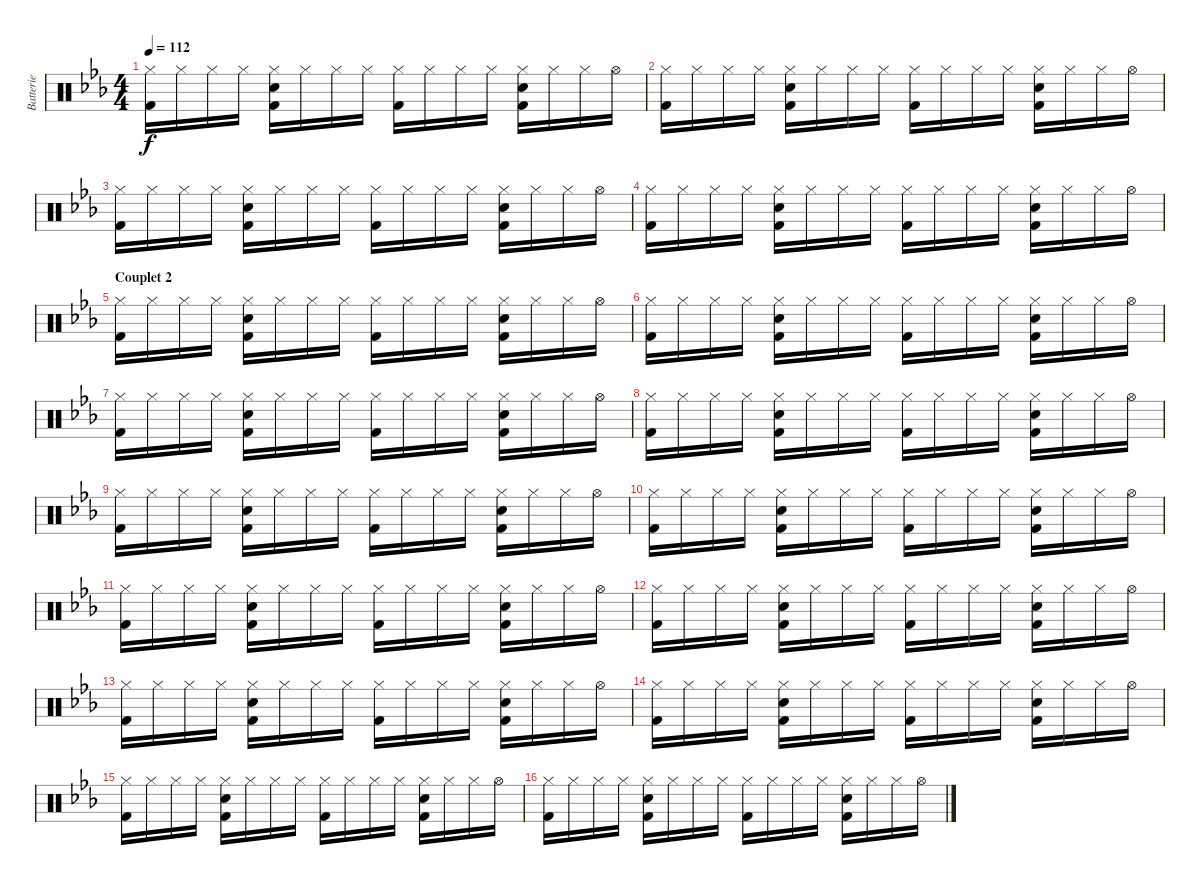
\track ("Batterie" "Batterie") {instrument percussion}
\staff {score}
\articulation defaults
\ts (4 4)
\tempo 112
\clef neutral
\ks cminor
("Hi-Hat (closed)" "Kick (hit) 2").16{dy f} "Hi-Hat (closed)".16 "Hi-Hat (closed)".16 "Hi-Hat (closed)".16 ("Hi-Hat (closed)" "Electric Snare (hit)" "Kick (hit) 2").16 "Hi-Hat (closed)".16 "Hi-Hat (closed)".16 "Hi-Hat (closed)".16 ("Hi-Hat (closed)" "Kick (hit) 2").16 "Hi-Hat (closed)".16 "Hi-Hat (closed)".16 "Hi-Hat (closed)".16 ("Hi-Hat (closed)" "Electric Snare (hit)" "Kick (hit) 2").16 "Hi-Hat (closed)".16 "Hi-Hat (closed)".16 "Hi-Hat (open)".16 |
("Hi-Hat (closed)" "Kick (hit) 2").16 "Hi-Hat (closed)".16 "Hi-Hat (closed)".16 "Hi-Hat (closed)".16 ("Hi-Hat (closed)" "Electric Snare (hit)" "Kick (hit) 2").16 "Hi-Hat (closed)".16 "Hi-Hat (closed)".16 "Hi-Hat (closed)".16 ("Hi-Hat (closed)" "Kick (hit) 2").16 "Hi-Hat (closed)".16 "Hi-Hat (closed)".16 "Hi-Hat (closed)".16 ("Hi-Hat (closed)" "Electric Snare (hit)" "Kick (hit) 2").16 "Hi-Hat (closed)".16 "Hi-Hat (closed)".16 "Hi-Hat (open)".16 |
("Hi-Hat (closed)" "Kick (hit) 2").16 "Hi-Hat (closed)".16 "Hi-Hat (closed)".16 "Hi-Hat (closed)".16 ("Hi-Hat (closed)" "Electric Snare (hit)" "Kick (hit) 2").16 "Hi-Hat (closed)".16 "Hi-Hat (closed)".16 "Hi-Hat (closed)".16 ("Hi-Hat (closed)" "Kick (hit) 2").16 "Hi-Hat (closed)".16 "Hi-Hat (closed)".16 "Hi-Hat (closed)".16 ("Hi-Hat (closed)" "Electric Snare (hit)" "Kick (hit) 2").16 "Hi-Hat (closed)".16 "Hi-Hat (closed)".16 "Hi-Hat (open)".16 |
("Hi-Hat (closed)" "Kick (hit) 2").16 "Hi-Hat (closed)".16 "Hi-Hat (closed)".16 "Hi-Hat (closed)".16 ("Hi-Hat (closed)" "Electric Snare (hit)" "Kick (hit) 2").16 "Hi-Hat (closed)".16 "Hi-Hat (closed)".16 "Hi-Hat (closed)".16 ("Hi-Hat (closed)" "Kick (hit) 2").16 "Hi-Hat (closed)".16 "Hi-Hat (closed)".16 "Hi-Hat (closed)".16 ("Hi-Hat (closed)" "Electric Snare (hit)" "Kick (hit) 2").16 "Hi-Hat (closed)".16 "Hi-Hat (closed)".16 "Hi-Hat (open)".16 |
\section ("" "Couplet 2")
("Hi-Hat (closed)" "Kick (hit) 2").16 "Hi-Hat (closed)".16 "Hi-Hat (closed)".16 "Hi-Hat (closed)".16 ("Hi-Hat (closed)" "Electric Snare (hit)" "Kick (hit) 2").16 "Hi-Hat (closed)".16 "Hi-Hat (closed)".16 "Hi-Hat (closed)".16 ("Hi-Hat (closed)" "Kick (hit) 2").16 "Hi-Hat (closed)".16 "Hi-Hat (closed)".16 "Hi-Hat (closed)".16 ("Hi-Hat (closed)" "Electric Snare (hit)" "Kick (hit) 2").16 "Hi-Hat (closed)".16 "Hi-Hat (closed)".16 "Hi-Hat (open)".16 |
("Hi-Hat (closed)" "Kick (hit) 2").16 "Hi-Hat (closed)".16 "Hi-Hat (closed)".16 "Hi-Hat (closed)".16 ("Hi-Hat (closed)" "Electric Snare (hit)" "Kick (hit) 2").16 "Hi-Hat (closed)".16 "Hi-Hat (closed)".16 "Hi-Hat (closed)".16 ("Hi-Hat (closed)" "Kick (hit) 2").16 "Hi-Hat (closed)".16 "Hi-Hat (closed)".16 "Hi-Hat (closed)".16 ("Hi-Hat (closed)" "Electric Snare (hit)" "Kick (hit) 2").16 "Hi-Hat (closed)".16 "Hi-Hat (closed)".16 "Hi-Hat (open)".16 |
("Hi-Hat (closed)" "Kick (hit) 2").16 "Hi-Hat (closed)".16 "Hi-Hat (closed)".16 "Hi-Hat (closed)".16 ("Hi-Hat (closed)" "Electric Snare (hit)" "Kick (hit) 2").16 "Hi-Hat (closed)".16 "Hi-Hat (closed)".16 "Hi-Hat (closed)".16 ("Hi-Hat (closed)" "Kick (hit) 2").16 "Hi-Hat (closed)".16 "Hi-Hat (closed)".16 "Hi-Hat (closed)".16 ("Hi-Hat (closed)" "Electric Snare (hit)" "Kick (hit) 2").16 "Hi-Hat (closed)".16 "Hi-Hat (closed)".16 "Hi-Hat (open)".16 |
("Hi-Hat (closed)" "Kick (hit) 2").16 "Hi-Hat (closed)".16 "Hi-Hat (closed)".16 "Hi-Hat (closed)".16 ("Hi-Hat (closed)" "Electric Snare (hit)" "Kick (hit) 2").16 "Hi-Hat (closed)".16 "Hi-Hat (closed)".16 "Hi-Hat (closed)".16 ("Hi-Hat (closed)" "Kick (hit) 2").16 "Hi-Hat (closed)".16 "Hi-Hat (closed)".16 "Hi-Hat (closed)".16 ("Hi-Hat (closed)" "Electric Snare (hit)" "Kick (hit) 2").16 "Hi-Hat (closed)".16 "Hi-Hat (closed)".16 "Hi-Hat (open)".16 |
("Hi-Hat (closed)" "Kick (hit) 2").16 "Hi-Hat (closed)".16 "Hi-Hat (closed)".16 "Hi-Hat (closed)".16 ("Hi-Hat (closed)" "Electric Snare (hit)" "Kick (hit) 2").16 "Hi-Hat (closed)".16 "Hi-Hat (closed)".16 "Hi-Hat (closed)".16 ("Hi-Hat (closed)" "Kick (hit) 2").16 "Hi-Hat (closed)".16 "Hi-Hat (closed)".16 "Hi-Hat (closed)".16 ("Hi-Hat (closed)" "Electric Snare (hit)" "Kick (hit) 2").16 "Hi-Hat (closed)".16 "Hi-Hat (closed)".16 "Hi-Hat (open)".16 |
("Hi-Hat (closed)" "Kick (hit) 2").16 "Hi-Hat (closed)".16 "Hi-Hat (closed)".16 "Hi-Hat (closed)".16 ("Hi-Hat (closed)" "Electric Snare (hit)" "Kick (hit) 2").16 "Hi-Hat (closed)".16 "Hi-Hat (closed)".16 "Hi-Hat (closed)".16 ("Hi-Hat (closed)" "Kick (hit) 2").16 "Hi-Hat (closed)".16 "Hi-Hat (closed)".16 "Hi-Hat (closed)".16 ("Hi-Hat (closed)" "Electric Snare (hit)" "Kick (hit) 2").16 "Hi-Hat (closed)".16 "Hi-Hat (closed)".16 "Hi-Hat (open)".16 |
("Hi-Hat (closed)" "Kick (hit) 2").16 "Hi-Hat (closed)".16 "Hi-Hat (closed)".16 "Hi-Hat (closed)".16 ("Hi-Hat (closed)" "Electric Snare (hit)" "Kick (hit) 2").16 "Hi-Hat (closed)".16 "Hi-Hat (closed)".16 "Hi-Hat (closed)".16 ("Hi-Hat (closed)" "Kick (hit) 2").16 "Hi-Hat (closed)".16 "Hi-Hat (closed)".16 "Hi-Hat (closed)".16 ("Hi-Hat (closed)" "Electric Snare (hit)" "Kick (hit) 2").16 "Hi-Hat (closed)".16 "Hi-Hat (closed)".16 "Hi-Hat (open)".16 |
("Hi-Hat (closed)" "Kick (hit) 2").16 "Hi-Hat (closed)".16 "Hi-Hat (closed)".16 "Hi-Hat (closed)".16 ("Hi-Hat (closed)" "Electric Snare (hit)" "Kick (hit) 2").16 "Hi-Hat (closed)".16 "Hi-Hat (closed)".16 "Hi-Hat (closed)".16 ("Hi-Hat (closed)" "Kick (hit) 2").16 "Hi-Hat (closed)".16 "Hi-Hat (closed)".16 "Hi-Hat (closed)".16 ("Hi-Hat (closed)" "Electric Snare (hit)" "Kick (hit) 2").16 "Hi-Hat (closed)".16 "Hi-Hat (closed)".16 "Hi-Hat (open)".16 |
("Hi-Hat (closed)" "Kick (hit) 2").16 "Hi-Hat (closed)".16 "Hi-Hat (closed)".16 "Hi-Hat (closed)".16 ("Hi-Hat (closed)" "Electric Snare (hit)" "Kick (hit) 2").16 "Hi-Hat (closed)".16 "Hi-Hat (closed)".16 "Hi-Hat (closed)".16 ("Hi-Hat (closed)" "Kick (hit) 2").16 "Hi-Hat (closed)".16 "Hi-Hat (closed)".16 "Hi-Hat (closed)".16 ("Hi-Hat (closed)" "Electric Snare (hit)" "Kick (hit) 2").16 "Hi-Hat (closed)".16 "Hi-Hat (closed)".16 "Hi-Hat (open)".16 |
("Hi-Hat (closed)" "Kick (hit) 2").16 "Hi-Hat (closed)".16 "Hi-Hat (closed)".16 "Hi-Hat (closed)".16 ("Hi-Hat (closed)" "Electric Snare (hit)" "Kick (hit) 2").16 "Hi-Hat (closed)".16 "Hi-Hat (closed)".16 "Hi-Hat (closed)".16 ("Hi-Hat (closed)" "Kick (hit) 2").16 "Hi-Hat (closed)".16 "Hi-Hat (closed)".16 "Hi-Hat (closed)".16 ("Hi-Hat (closed)" "Electric Snare (hit)" "Kick (hit) 2").16 "Hi-Hat (closed)".16 "Hi-Hat (closed)".16 "Hi-Hat (open)".16 |
("Hi-Hat (closed)" "Kick (hit) 2").16 "Hi-Hat (closed)".16 "Hi-Hat (closed)".16 "Hi-Hat (closed)".16 ("Hi-Hat (closed)" "Electric Snare (hit)" "Kick (hit) 2").16 "Hi-Hat (closed)".16 "Hi-Hat (closed)".16 "Hi-Hat (closed)".16 ("Hi-Hat (closed)" "Kick (hit) 2").16 "Hi-Hat (closed)".16 "Hi-Hat (closed)".16 "Hi-Hat (closed)".16 ("Hi-Hat (closed)" "Electric Snare (hit)" "Kick (hit) 2").16 "Hi-Hat (closed)".16 "Hi-Hat (closed)".16 "Hi-Hat (open)".16 |
("Hi-Hat (closed)" "Kick (hit) 2").16 "Hi-Hat (closed)".16 "Hi-Hat (closed)".16 "Hi-Hat (closed)".16 ("Hi-Hat (closed)" "Electric Snare (hit)" "Kick (hit) 2").16 "Hi-Hat (closed)".16 "Hi-Hat (closed)".16 "Hi-Hat (closed)".16 ("Hi-Hat (closed)" "Kick (hit) 2").16 "Hi-Hat (closed)".16 "Hi-Hat (closed)".16 "Hi-Hat (closed)".16 ("Hi-Hat (closed)" "Electric Snare (hit)" "Kick (hit) 2").16 "Hi-Hat (closed)".16 "Hi-Hat (closed)".16 "Hi-Hat (open)".16
